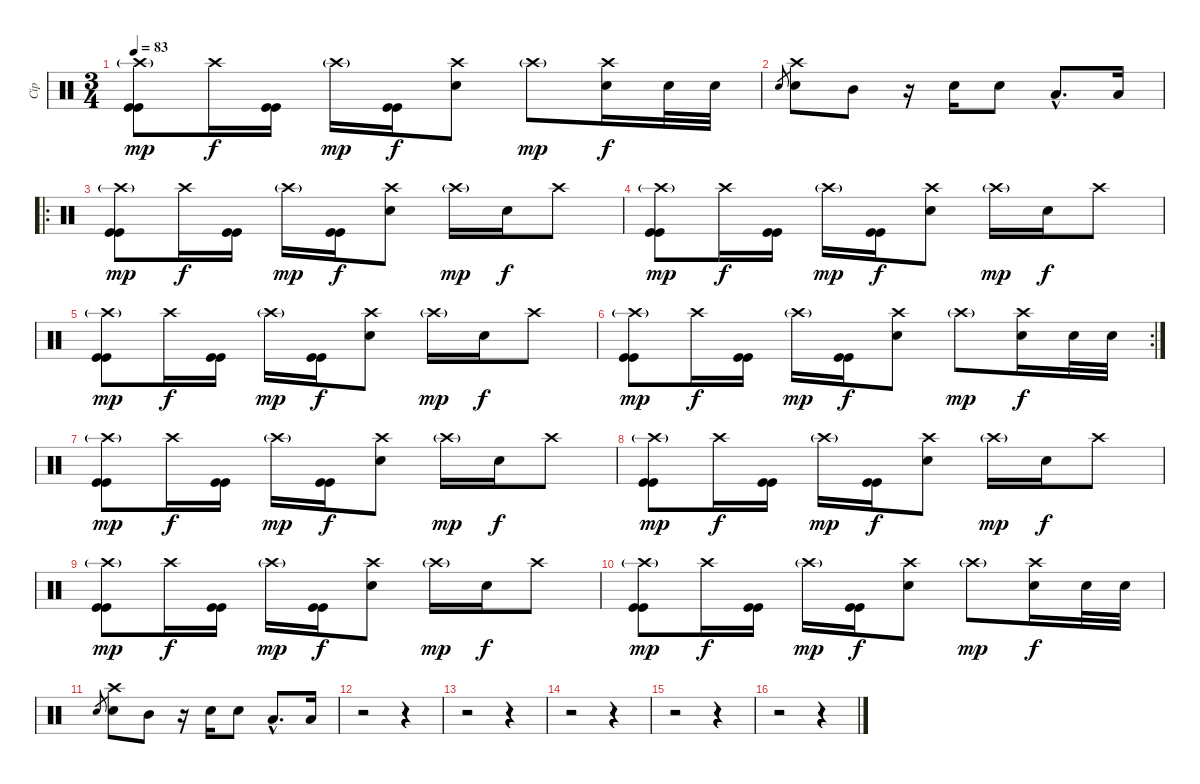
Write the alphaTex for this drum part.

\track ("Cip" "Cip") {instrument percussion}
\staff {score}
\articulation defaults
\ts (3 4)
\tempo 83
\clef neutral
\ks c
("Crash high (hit)"{g} "Kick (hit)" "Kick (hit)").8{dy mp} "Crash high (hit)".16{dy f} ("Kick (hit)" "Kick (hit)").16 "Crash high (hit)"{g}.16{dy mp} ("Kick (hit)" "Kick (hit)").16{dy f} ("Crash high (hit)" "Electric Snare (hit)").8 "Crash high (hit)"{g}.8{dy mp} ("Crash high (hit)" "Electric Snare (hit)").16{dy f} "Electric Snare (hit)".32 "Electric Snare (hit)".32 |
"Snare (hit) 2".8{gr} ("Crash high (hit)" "Electric Snare (hit)").8 "Mid Tom (hit)".8 r.16 "Electric Snare (hit)".16 "Electric Snare (hit)".8 "Low Tom (hit)"{hac}.8{d} "Low Floor Tom (hit)".16 |
\ro
("Crash high (hit)"{g} "Kick (hit)" "Kick (hit)").8{dy mp} "Crash high (hit)".16{dy f} ("Kick (hit)" "Kick (hit)").16 "Crash high (hit)"{g}.16{dy mp} ("Kick (hit)" "Kick (hit)").16{dy f} ("Crash high (hit)" "Electric Snare (hit)").8 "Crash high (hit)"{g}.16{dy mp} "Electric Snare (hit)".16{dy f} "Crash high (hit)".8 |
("Crash high (hit)"{g} "Kick (hit)" "Kick (hit)").8{dy mp} "Crash high (hit)".16{dy f} ("Kick (hit)" "Kick (hit)").16 "Crash high (hit)"{g}.16{dy mp} ("Kick (hit)" "Kick (hit)").16{dy f} ("Crash high (hit)" "Electric Snare (hit)").8 "Crash high (hit)"{g}.16{dy mp} "Electric Snare (hit)".16{dy f} "Crash high (hit)".8 |
("Crash high (hit)"{g} "Kick (hit)" "Kick (hit)").8{dy mp} "Crash high (hit)".16{dy f} ("Kick (hit)" "Kick (hit)").16 "Crash high (hit)"{g}.16{dy mp} ("Kick (hit)" "Kick (hit)").16{dy f} ("Crash high (hit)" "Electric Snare (hit)").8 "Crash high (hit)"{g}.16{dy mp} "Electric Snare (hit)".16{dy f} "Crash high (hit)".8 |
\rc 2
("Crash high (hit)"{g} "Kick (hit)" "Kick (hit)").8{dy mp} "Crash high (hit)".16{dy f} ("Kick (hit)" "Kick (hit)").16 "Crash high (hit)"{g}.16{dy mp} ("Kick (hit)" "Kick (hit)").16{dy f} ("Crash high (hit)" "Electric Snare (hit)").8 "Crash high (hit)"{g}.8{dy mp} ("Crash high (hit)" "Electric Snare (hit)").16{dy f} "Electric Snare (hit)".32 "Electric Snare (hit)".32 |
("Crash high (hit)"{g} "Kick (hit)" "Kick (hit)").8{dy mp} "Crash high (hit)".16{dy f} ("Kick (hit)" "Kick (hit)").16 "Crash high (hit)"{g}.16{dy mp} ("Kick (hit)" "Kick (hit)").16{dy f} ("Crash high (hit)" "Electric Snare (hit)").8 "Crash high (hit)"{g}.16{dy mp} "Electric Snare (hit)".16{dy f} "Crash high (hit)".8 |
("Crash high (hit)"{g} "Kick (hit)" "Kick (hit)").8{dy mp} "Crash high (hit)".16{dy f} ("Kick (hit)" "Kick (hit)").16 "Crash high (hit)"{g}.16{dy mp} ("Kick (hit)" "Kick (hit)").16{dy f} ("Crash high (hit)" "Electric Snare (hit)").8 "Crash high (hit)"{g}.16{dy mp} "Electric Snare (hit)".16{dy f} "Crash high (hit)".8 |
("Crash high (hit)"{g} "Kick (hit)" "Kick (hit)").8{dy mp} "Crash high (hit)".16{dy f} ("Kick (hit)" "Kick (hit)").16 "Crash high (hit)"{g}.16{dy mp} ("Kick (hit)" "Kick (hit)").16{dy f} ("Crash high (hit)" "Electric Snare (hit)").8 "Crash high (hit)"{g}.16{dy mp} "Electric Snare (hit)".16{dy f} "Crash high (hit)".8 |
("Crash high (hit)"{g} "Kick (hit)" "Kick (hit)").8{dy mp} "Crash high (hit)".16{dy f} ("Kick (hit)" "Kick (hit)").16 "Crash high (hit)"{g}.16{dy mp} ("Kick (hit)" "Kick (hit)").16{dy f} ("Crash high (hit)" "Electric Snare (hit)").8 "Crash high (hit)"{g}.8{dy mp} ("Crash high (hit)" "Electric Snare (hit)").16{dy f} "Electric Snare (hit)".32 "Electric Snare (hit)".32 |
"Snare (hit) 2".8{gr} ("Crash high (hit)" "Electric Snare (hit)").8 "Mid Tom (hit)".8 r.16 "Electric Snare (hit)".16 "Electric Snare (hit)".8 "Low Tom (hit)"{hac}.8{d} "Low Floor Tom (hit)".16 |
r.2 r.4 |
r.2 r.4 |
r.2 r.4 |
r.2 r.4 |
r.2 r.4
